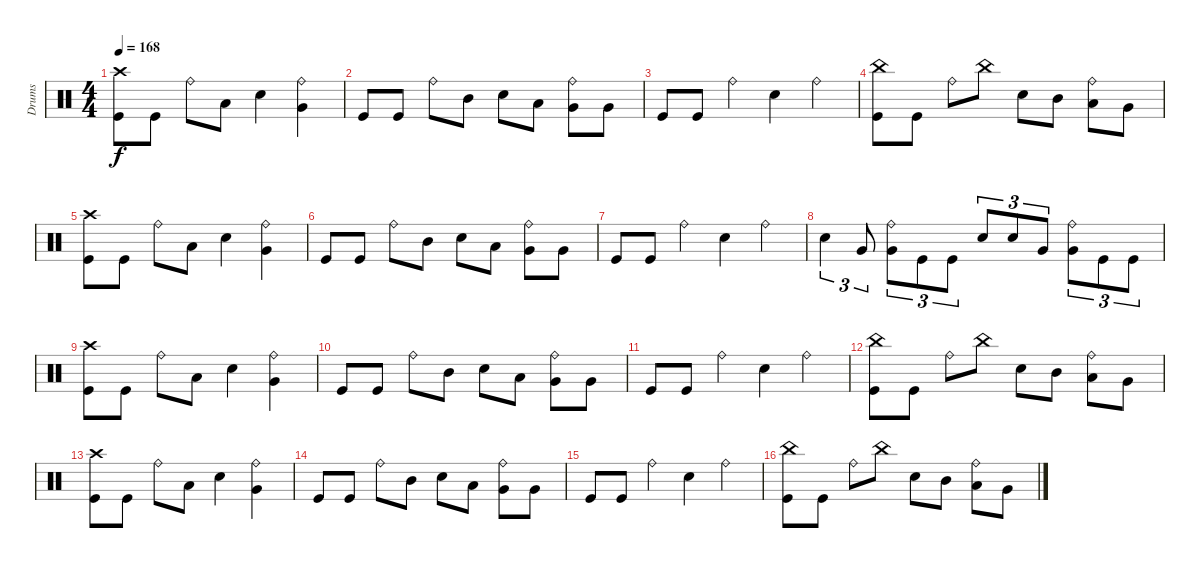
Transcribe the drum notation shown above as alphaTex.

\track ("Drums" "Drums") {instrument percussion}
\staff {score}
\articulation defaults
\ts (4 4)
\tempo 168
\clef neutral
\ks c
("Crash high (hit)" "Kick (hit)").8{dy f} "Kick (hit)".8 "Ride (bell)".8 "Low Tom (hit)".8 "Electric Snare (hit)".4 ("Ride (bell)" "Very Low Tom (hit)").4 |
"Kick (hit)".8 "Kick (hit)".8 "Ride (bell)".8 "Mid Tom (hit)".8 "Electric Snare (hit)".8 "Low Tom (hit)".8 ("Ride (bell)" "Very Low Tom (hit)").8 "Very Low Tom (hit)".8 |
"Kick (hit)".8 "Kick (hit)".8 "Ride (bell)".4 "Electric Snare (hit)".4 "Ride (bell)".4 |
("China (hit)" "Kick (hit)").8 "Kick (hit)".8 "Ride (bell)".8 "China (hit)".8 "Electric Snare (hit)".8 "Mid Tom (hit)".8 ("Ride (bell)" "Low Tom (hit)").8 "Very Low Tom (hit)".8 |
("Crash high (hit)" "Kick (hit)").8 "Kick (hit)".8 "Ride (bell)".8 "Low Tom (hit)".8 "Electric Snare (hit)".4 ("Ride (bell)" "Very Low Tom (hit)").4 |
"Kick (hit)".8 "Kick (hit)".8 "Ride (bell)".8 "Mid Tom (hit)".8 "Electric Snare (hit)".8 "Low Tom (hit)".8 ("Ride (bell)" "Very Low Tom (hit)").8 "Very Low Tom (hit)".8 |
"Kick (hit)".8 "Kick (hit)".8 "Ride (bell)".4 "Electric Snare (hit)".4 "Ride (bell)".4 |
"Electric Snare (hit)".4{tu (3 2)} "Very Low Tom (hit)".8{tu (3 2)} ("Ride (bell)" "Very Low Tom (hit)").8{tu (3 2)} "Kick (hit)".8{tu (3 2)} "Kick (hit)".8{tu (3 2)} "Electric Snare (hit)".8{tu (3 2)} "Electric Snare (hit)".8{tu (3 2)} "Very Low Tom (hit)".8{tu (3 2)} ("Ride (bell)" "Very Low Tom (hit)").8{tu (3 2)} "Kick (hit)".8{tu (3 2)} "Kick (hit)".8{tu (3 2)} |
("Crash high (hit)" "Kick (hit)").8 "Kick (hit)".8 "Ride (bell)".8 "Low Tom (hit)".8 "Electric Snare (hit)".4 ("Ride (bell)" "Very Low Tom (hit)").4 |
"Kick (hit)".8 "Kick (hit)".8 "Ride (bell)".8 "Mid Tom (hit)".8 "Electric Snare (hit)".8 "Low Tom (hit)".8 ("Ride (bell)" "Very Low Tom (hit)").8 "Very Low Tom (hit)".8 |
"Kick (hit)".8 "Kick (hit)".8 "Ride (bell)".4 "Electric Snare (hit)".4 "Ride (bell)".4 |
("China (hit)" "Kick (hit)").8 "Kick (hit)".8 "Ride (bell)".8 "China (hit)".8 "Electric Snare (hit)".8 "Mid Tom (hit)".8 ("Ride (bell)" "Low Tom (hit)").8 "Very Low Tom (hit)".8 |
("Crash high (hit)" "Kick (hit)").8 "Kick (hit)".8 "Ride (bell)".8 "Low Tom (hit)".8 "Electric Snare (hit)".4 ("Ride (bell)" "Very Low Tom (hit)").4 |
"Kick (hit)".8 "Kick (hit)".8 "Ride (bell)".8 "Mid Tom (hit)".8 "Electric Snare (hit)".8 "Low Tom (hit)".8 ("Ride (bell)" "Very Low Tom (hit)").8 "Very Low Tom (hit)".8 |
"Kick (hit)".8 "Kick (hit)".8 "Ride (bell)".4 "Electric Snare (hit)".4 "Ride (bell)".4 |
("China (hit)" "Kick (hit)").8 "Kick (hit)".8 "Ride (bell)".8 "China (hit)".8 "Electric Snare (hit)".8 "Mid Tom (hit)".8 ("Ride (bell)" "Low Tom (hit)").8 "Very Low Tom (hit)".8
